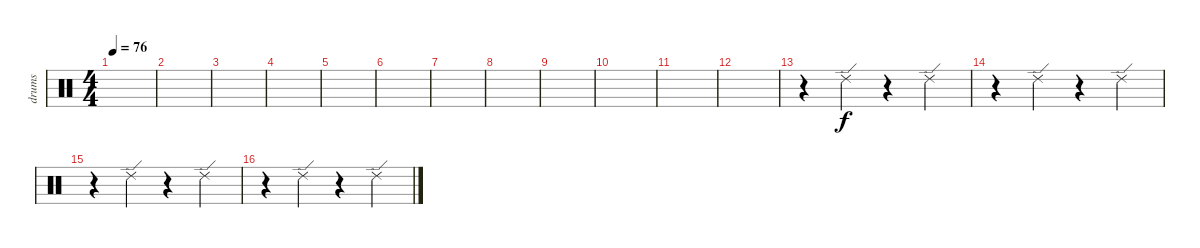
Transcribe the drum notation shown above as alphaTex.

\track ("drums" "drums") {instrument percussion}
\staff {score}
\articulation defaults
\ts (4 4)
\tempo 76
\clef neutral
\ks c
|
|
|
|
|
|
|
|
|
|
|
|
r.4 "Ride (edge) 2".4 r.4 "Ride (edge) 2".4 |
r.4 "Ride (edge) 2".4 r.4 "Ride (edge) 2".4 |
r.4 "Ride (edge) 2".4 r.4 "Ride (edge) 2".4 |
r.4 "Ride (edge) 2".4 r.4 "Ride (edge) 2".4
